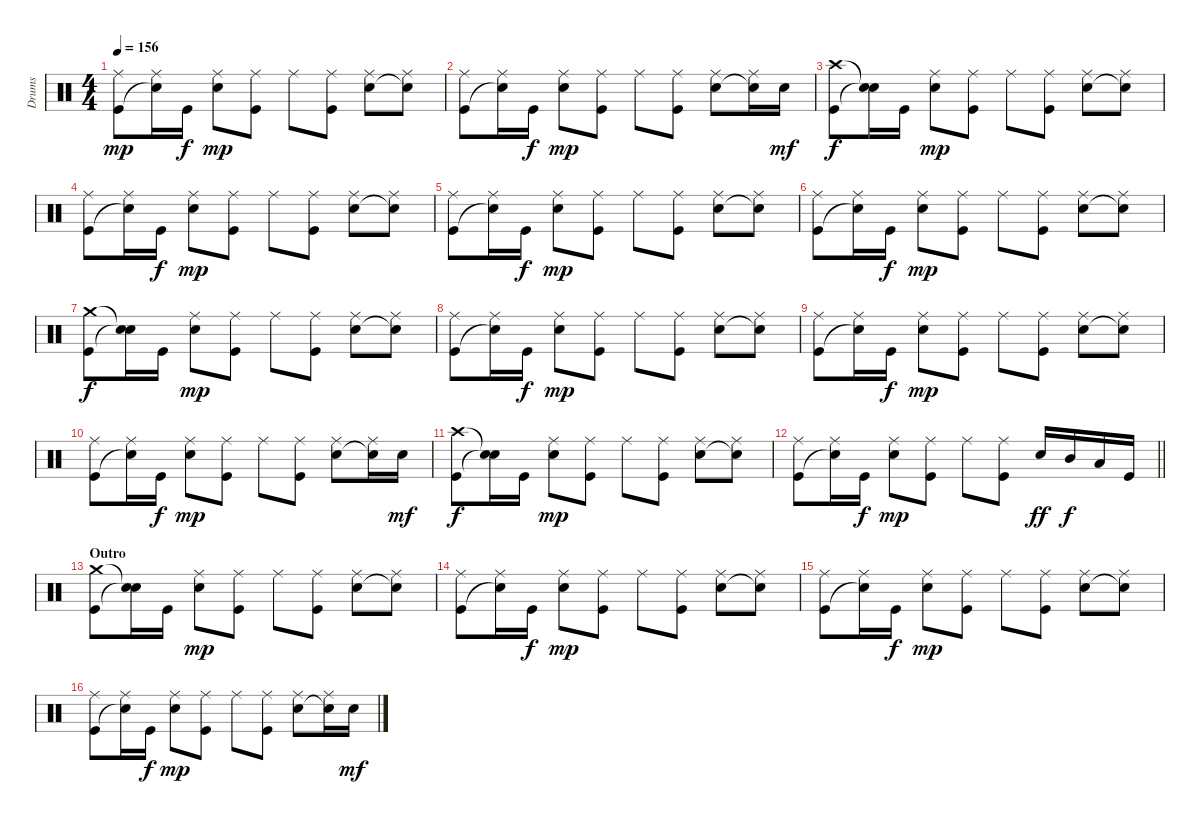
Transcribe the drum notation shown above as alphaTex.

\track ("Drums" "Drums") {instrument percussion}
\staff {score}
\articulation defaults
\ts (4 4)
\tempo 156
\clef neutral
\ks c
("Ride (middle)" "Kick (hit)").8{dy mp} ("Ride (middle)" "Snare (hit)"{t}).16 "Kick (hit)".16{dy f} ("Ride (middle)" "Snare (hit) 2").8{dy mp} ("Ride (middle)" "Kick (hit)").8 "Ride (middle)".8 ("Ride (middle)" "Kick (hit)").8 ("Ride (middle)" "Snare (hit) 2").8 ("Ride (middle)" "Snare (hit)"{t}).8 |
("Ride (middle)" "Kick (hit)").8 ("Ride (middle)" "Snare (hit)"{t}).16 "Kick (hit)".16{dy f} ("Ride (middle)" "Snare (hit) 2").8{dy mp} ("Ride (middle)" "Kick (hit)").8 "Ride (middle)".8 ("Ride (middle)" "Kick (hit)").8 ("Ride (middle)" "Snare (hit) 2").8 ("Ride (middle)" "Snare (hit)"{t}).16 "Snare (hit) 2".16{dy mf} |
("Crash high (hit)" "Kick (hit)").8{dy f} ("Snare (hit)"{t} "Snare (hit)"{t}).16 "Kick (hit)".16 ("Ride (middle)" "Snare (hit) 2").8{dy mp} ("Ride (middle)" "Kick (hit)").8 "Ride (middle)".8 ("Ride (middle)" "Kick (hit)").8 ("Ride (middle)" "Snare (hit) 2").8 ("Ride (middle)" "Snare (hit)"{t}).8 |
("Ride (middle)" "Kick (hit)").8 ("Ride (middle)" "Snare (hit)"{t}).16 "Kick (hit)".16{dy f} ("Ride (middle)" "Snare (hit) 2").8{dy mp} ("Ride (middle)" "Kick (hit)").8 "Ride (middle)".8 ("Ride (middle)" "Kick (hit)").8 ("Ride (middle)" "Snare (hit) 2").8 ("Ride (middle)" "Snare (hit)"{t}).8 |
("Ride (middle)" "Kick (hit)").8 ("Ride (middle)" "Snare (hit)"{t}).16 "Kick (hit)".16{dy f} ("Ride (middle)" "Snare (hit) 2").8{dy mp} ("Ride (middle)" "Kick (hit)").8 "Ride (middle)".8 ("Ride (middle)" "Kick (hit)").8 ("Ride (middle)" "Snare (hit) 2").8 ("Ride (middle)" "Snare (hit)"{t}).8 |
("Ride (middle)" "Kick (hit)").8 ("Ride (middle)" "Snare (hit)"{t}).16 "Kick (hit)".16{dy f} ("Ride (middle)" "Snare (hit) 2").8{dy mp} ("Ride (middle)" "Kick (hit)").8 "Ride (middle)".8 ("Ride (middle)" "Kick (hit)").8 ("Ride (middle)" "Snare (hit) 2").8 ("Ride (middle)" "Snare (hit)"{t}).8 |
("Crash medium (hit)" "Kick (hit)").8{dy f} ("Snare (hit)"{t} "Snare (hit)"{t}).16 "Kick (hit)".16 ("Ride (middle)" "Snare (hit) 2").8{dy mp} ("Ride (middle)" "Kick (hit)").8 "Ride (middle)".8 ("Ride (middle)" "Kick (hit)").8 ("Ride (middle)" "Snare (hit) 2").8 ("Ride (middle)" "Snare (hit)"{t}).8 |
("Ride (middle)" "Kick (hit)").8 ("Ride (middle)" "Snare (hit)"{t}).16 "Kick (hit)".16{dy f} ("Ride (middle)" "Snare (hit) 2").8{dy mp} ("Ride (middle)" "Kick (hit)").8 "Ride (middle)".8 ("Ride (middle)" "Kick (hit)").8 ("Ride (middle)" "Snare (hit) 2").8 ("Ride (middle)" "Snare (hit)"{t}).8 |
("Ride (middle)" "Kick (hit)").8 ("Ride (middle)" "Snare (hit)"{t}).16 "Kick (hit)".16{dy f} ("Ride (middle)" "Snare (hit) 2").8{dy mp} ("Ride (middle)" "Kick (hit)").8 "Ride (middle)".8 ("Ride (middle)" "Kick (hit)").8 ("Ride (middle)" "Snare (hit) 2").8 ("Ride (middle)" "Snare (hit)"{t}).8 |
("Ride (middle)" "Kick (hit)").8 ("Ride (middle)" "Snare (hit)"{t}).16 "Kick (hit)".16{dy f} ("Ride (middle)" "Snare (hit) 2").8{dy mp} ("Ride (middle)" "Kick (hit)").8 "Ride (middle)".8 ("Ride (middle)" "Kick (hit)").8 ("Ride (middle)" "Snare (hit) 2").8 ("Ride (middle)" "Snare (hit)"{t}).16 "Snare (hit) 2".16{dy mf} |
("Crash high (hit)" "Kick (hit)").8{dy f} ("Snare (hit)"{t} "Snare (hit)"{t}).16 "Kick (hit)".16 ("Ride (middle)" "Snare (hit) 2").8{dy mp} ("Ride (middle)" "Kick (hit)").8 "Ride (middle)".8 ("Ride (middle)" "Kick (hit)").8 ("Ride (middle)" "Snare (hit) 2").8 ("Ride (middle)" "Snare (hit)"{t}).8 |
\barLineRight lightlight
("Ride (middle)" "Kick (hit)").8 ("Ride (middle)" "Snare (hit)"{t}).16 "Kick (hit)".16{dy f} ("Ride (middle)" "Snare (hit) 2").8{dy mp} ("Ride (middle)" "Kick (hit)").8 "Ride (middle)".8 ("Ride (middle)" "Kick (hit)").8 "Snare (hit) 2".16{dy ff} "Mid Tom (hit)".16{dy f} "Low Floor Tom (hit)".16 "Kick (hit)".16 |
\section ("" "Outro")
("Crash medium (hit)" "Kick (hit)").8 ("Snare (hit)"{t} "Snare (hit)"{t}).16 "Kick (hit)".16 ("Ride (middle)" "Snare (hit) 2").8{dy mp} ("Ride (middle)" "Kick (hit)").8 "Ride (middle)".8 ("Ride (middle)" "Kick (hit)").8 ("Ride (middle)" "Snare (hit) 2").8 ("Ride (middle)" "Snare (hit)"{t}).8 |
("Ride (middle)" "Kick (hit)").8 ("Ride (middle)" "Snare (hit)"{t}).16 "Kick (hit)".16{dy f} ("Ride (middle)" "Snare (hit) 2").8{dy mp} ("Ride (middle)" "Kick (hit)").8 "Ride (middle)".8 ("Ride (middle)" "Kick (hit)").8 ("Ride (middle)" "Snare (hit) 2").8 ("Ride (middle)" "Snare (hit)"{t}).8 |
("Ride (middle)" "Kick (hit)").8 ("Ride (middle)" "Snare (hit)"{t}).16 "Kick (hit)".16{dy f} ("Ride (middle)" "Snare (hit) 2").8{dy mp} ("Ride (middle)" "Kick (hit)").8 "Ride (middle)".8 ("Ride (middle)" "Kick (hit)").8 ("Ride (middle)" "Snare (hit) 2").8 ("Ride (middle)" "Snare (hit)"{t}).8 |
("Ride (middle)" "Kick (hit)").8 ("Ride (middle)" "Snare (hit)"{t}).16 "Kick (hit)".16{dy f} ("Ride (middle)" "Snare (hit) 2").8{dy mp} ("Ride (middle)" "Kick (hit)").8 "Ride (middle)".8 ("Ride (middle)" "Kick (hit)").8 ("Ride (middle)" "Snare (hit) 2").8 ("Ride (middle)" "Snare (hit)"{t}).16 "Snare (hit) 2".16{dy mf}
